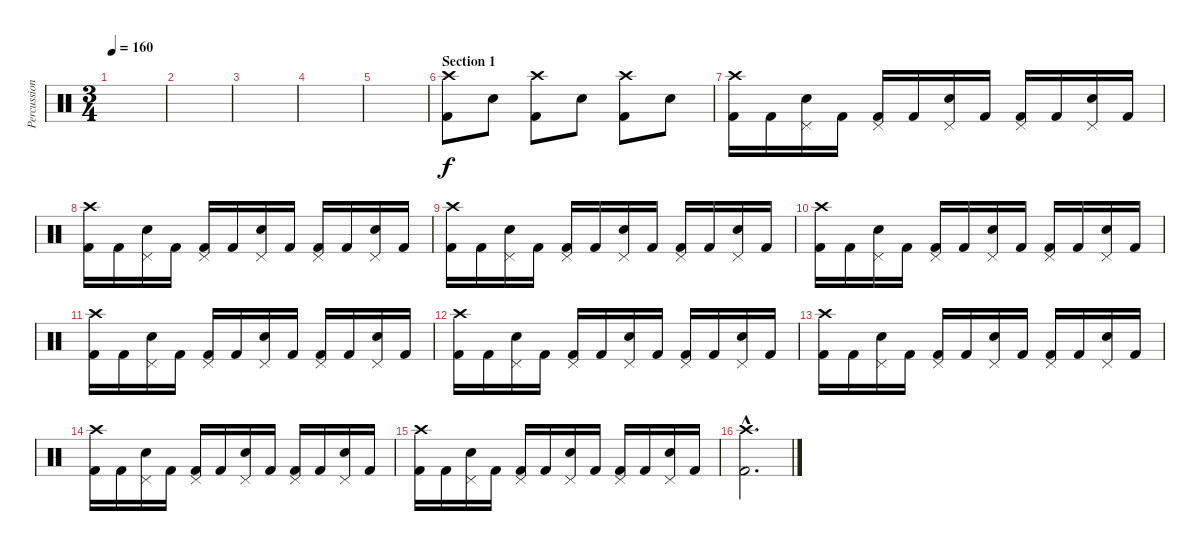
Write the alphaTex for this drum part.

\track ("Percussion" "Percussion") {instrument percussion}
\staff {score}
\articulation defaults
\ts (3 4)
\tempo 160
\clef neutral
\ks c
|
|
|
|
|
\section ("" "Section 1")
("Crash high (hit)" "Kick (hit) 2").8 "Snare (hit) 2".8 ("Crash high (hit)" "Kick (hit) 2").8 "Snare (hit) 2".8 ("Crash high (hit)" "Kick (hit) 2").8 "Snare (hit) 2".8 |
("Crash high (hit)" "Kick (hit) 2").16 "Kick (hit) 2".16 ("Pedal Hi-Hat (hit)" "Snare (hit) 2").16 "Kick (hit) 2".16 ("Pedal Hi-Hat (hit)" "Kick (hit) 2").16 "Kick (hit) 2".16 ("Pedal Hi-Hat (hit)" "Snare (hit) 2").16 "Kick (hit) 2".16 ("Pedal Hi-Hat (hit)" "Kick (hit) 2").16 "Kick (hit) 2".16 ("Pedal Hi-Hat (hit)" "Snare (hit) 2").16 "Kick (hit) 2".16 |
("Crash high (hit)" "Kick (hit) 2").16 "Kick (hit) 2".16 ("Pedal Hi-Hat (hit)" "Snare (hit) 2").16 "Kick (hit) 2".16 ("Pedal Hi-Hat (hit)" "Kick (hit) 2").16 "Kick (hit) 2".16 ("Pedal Hi-Hat (hit)" "Snare (hit) 2").16 "Kick (hit) 2".16 ("Pedal Hi-Hat (hit)" "Kick (hit) 2").16 "Kick (hit) 2".16 ("Pedal Hi-Hat (hit)" "Snare (hit) 2").16 "Kick (hit) 2".16 |
("Crash high (hit)" "Kick (hit) 2").16 "Kick (hit) 2".16 ("Pedal Hi-Hat (hit)" "Snare (hit) 2").16 "Kick (hit) 2".16 ("Pedal Hi-Hat (hit)" "Kick (hit) 2").16 "Kick (hit) 2".16 ("Pedal Hi-Hat (hit)" "Snare (hit) 2").16 "Kick (hit) 2".16 ("Pedal Hi-Hat (hit)" "Kick (hit) 2").16 "Kick (hit) 2".16 ("Pedal Hi-Hat (hit)" "Snare (hit) 2").16 "Kick (hit) 2".16 |
("Crash high (hit)" "Kick (hit) 2").16 "Kick (hit) 2".16 ("Pedal Hi-Hat (hit)" "Snare (hit) 2").16 "Kick (hit) 2".16 ("Pedal Hi-Hat (hit)" "Kick (hit) 2").16 "Kick (hit) 2".16 ("Pedal Hi-Hat (hit)" "Snare (hit) 2").16 "Kick (hit) 2".16 ("Pedal Hi-Hat (hit)" "Kick (hit) 2").16 "Kick (hit) 2".16 ("Pedal Hi-Hat (hit)" "Snare (hit) 2").16 "Kick (hit) 2".16 |
("Crash high (hit)" "Kick (hit) 2").16 "Kick (hit) 2".16 ("Pedal Hi-Hat (hit)" "Snare (hit) 2").16 "Kick (hit) 2".16 ("Pedal Hi-Hat (hit)" "Kick (hit) 2").16 "Kick (hit) 2".16 ("Pedal Hi-Hat (hit)" "Snare (hit) 2").16 "Kick (hit) 2".16 ("Pedal Hi-Hat (hit)" "Kick (hit) 2").16 "Kick (hit) 2".16 ("Pedal Hi-Hat (hit)" "Snare (hit) 2").16 "Kick (hit) 2".16 |
("Crash high (hit)" "Kick (hit) 2").16 "Kick (hit) 2".16 ("Pedal Hi-Hat (hit)" "Snare (hit) 2").16 "Kick (hit) 2".16 ("Pedal Hi-Hat (hit)" "Kick (hit) 2").16 "Kick (hit) 2".16 ("Pedal Hi-Hat (hit)" "Snare (hit) 2").16 "Kick (hit) 2".16 ("Pedal Hi-Hat (hit)" "Kick (hit) 2").16 "Kick (hit) 2".16 ("Pedal Hi-Hat (hit)" "Snare (hit) 2").16 "Kick (hit) 2".16 |
("Crash high (hit)" "Kick (hit) 2").16 "Kick (hit) 2".16 ("Pedal Hi-Hat (hit)" "Snare (hit) 2").16 "Kick (hit) 2".16 ("Pedal Hi-Hat (hit)" "Kick (hit) 2").16 "Kick (hit) 2".16 ("Pedal Hi-Hat (hit)" "Snare (hit) 2").16 "Kick (hit) 2".16 ("Pedal Hi-Hat (hit)" "Kick (hit) 2").16 "Kick (hit) 2".16 ("Pedal Hi-Hat (hit)" "Snare (hit) 2").16 "Kick (hit) 2".16 |
("Crash high (hit)" "Kick (hit) 2").16 "Kick (hit) 2".16 ("Pedal Hi-Hat (hit)" "Snare (hit) 2").16 "Kick (hit) 2".16 ("Pedal Hi-Hat (hit)" "Kick (hit) 2").16 "Kick (hit) 2".16 ("Pedal Hi-Hat (hit)" "Snare (hit) 2").16 "Kick (hit) 2".16 ("Pedal Hi-Hat (hit)" "Kick (hit) 2").16 "Kick (hit) 2".16 ("Pedal Hi-Hat (hit)" "Snare (hit) 2").16 "Kick (hit) 2".16 |
("Crash high (hit)" "Kick (hit) 2").16 "Kick (hit) 2".16 ("Pedal Hi-Hat (hit)" "Snare (hit) 2").16 "Kick (hit) 2".16 ("Pedal Hi-Hat (hit)" "Kick (hit) 2").16 "Kick (hit) 2".16 ("Pedal Hi-Hat (hit)" "Snare (hit) 2").16 "Kick (hit) 2".16 ("Pedal Hi-Hat (hit)" "Kick (hit) 2").16 "Kick (hit) 2".16 ("Pedal Hi-Hat (hit)" "Snare (hit) 2").16 "Kick (hit) 2".16 |
("Crash high (hit)"{hac} "Kick (hit) 2"{hac}).2{d}
